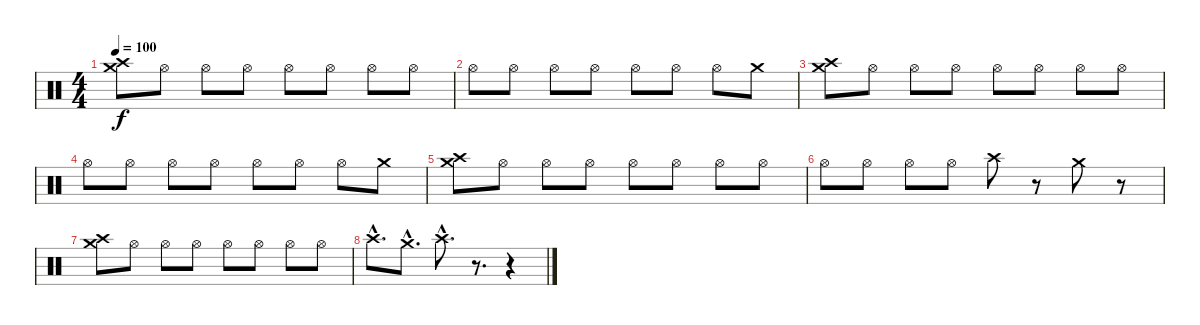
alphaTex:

\track "" {instrument percussion}
\staff {score}
\articulation defaults
\ts (4 4)
\tempo 100
\clef neutral
\ks c
("Crash medium (hit)" "Crash high (hit)").8{dy f} "Hi-Hat (open)".8 "Hi-Hat (open)".8 "Hi-Hat (open)".8 "Hi-Hat (open)".8 "Hi-Hat (open)".8 "Hi-Hat (open)".8 "Hi-Hat (open)".8 |
"Hi-Hat (open)".8 "Hi-Hat (open)".8 "Hi-Hat (open)".8 "Hi-Hat (open)".8 "Hi-Hat (open)".8 "Hi-Hat (open)".8 "Hi-Hat (open)".8 "Crash medium (hit)".8 |
("Crash medium (hit)" "Crash high (hit)").8 "Hi-Hat (open)".8 "Hi-Hat (open)".8 "Hi-Hat (open)".8 "Hi-Hat (open)".8 "Hi-Hat (open)".8 "Hi-Hat (open)".8 "Hi-Hat (open)".8 |
"Hi-Hat (open)".8 "Hi-Hat (open)".8 "Hi-Hat (open)".8 "Hi-Hat (open)".8 "Hi-Hat (open)".8 "Hi-Hat (open)".8 "Hi-Hat (open)".8 "Crash medium (hit)".8 |
("Crash medium (hit)" "Crash high (hit)").8 "Hi-Hat (open)".8 "Hi-Hat (open)".8 "Hi-Hat (open)".8 "Hi-Hat (open)".8 "Hi-Hat (open)".8 "Hi-Hat (open)".8 "Hi-Hat (open)".8 |
"Hi-Hat (open)".8 "Hi-Hat (open)".8 "Hi-Hat (open)".8 "Hi-Hat (open)".8 "Crash high (hit)".8 r.8 "Crash medium (hit)".8 r.8 |
("Crash medium (hit)" "Crash high (hit)").8 "Hi-Hat (open)".8 "Hi-Hat (open)".8 "Hi-Hat (open)".8 "Hi-Hat (open)".8 "Hi-Hat (open)".8 "Hi-Hat (open)".8 "Hi-Hat (open)".8 |
"Crash high (hit)"{hac}.8{d} "Crash medium (hit)"{hac}.8{d} "Crash high (hit)"{hac}.8{d} r.8{d} r.4
